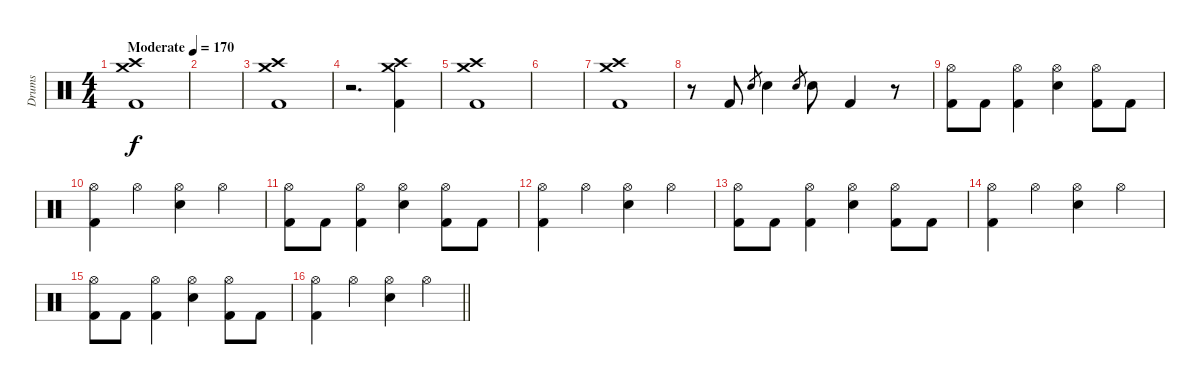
\track ("Drums" "Drums") {instrument percussion}
\staff {score}
\articulation defaults
\ts (4 4)
\tempo (170 "Moderate")
\clef neutral
\ks c
("Crash high (hit)" "Crash medium (hit)" "Kick (hit) 2").1{dy f} |
|
("Crash high (hit)" "Crash medium (hit)" "Kick (hit) 2").1 |
r.2{d} ("Crash high (hit)" "Crash medium (hit)" "Kick (hit) 2").4 |
("Crash high (hit)" "Crash medium (hit)" "Kick (hit) 2").1 |
|
("Crash high (hit)" "Crash medium (hit)" "Kick (hit) 2").1 |
r.8 "Kick (hit) 2".8 "Snare (hit) 2".8{gr} "Snare (hit) 2".4 "Snare (hit) 2".8{gr} "Snare (hit) 2".8 "Kick (hit) 2".4 r.8 |
("Hi-Hat (open)" "Kick (hit) 2").8 "Kick (hit) 2".8 ("Hi-Hat (open)" "Kick (hit) 2").4 ("Hi-Hat (open)" "Snare (hit) 2").4 ("Hi-Hat (open)" "Kick (hit) 2").8 "Kick (hit) 2".8 |
("Hi-Hat (open)" "Kick (hit) 2").4 "Hi-Hat (open)".4 ("Hi-Hat (open)" "Snare (hit) 2").4 "Hi-Hat (open)".4 |
("Hi-Hat (open)" "Kick (hit) 2").8 "Kick (hit) 2".8 ("Hi-Hat (open)" "Kick (hit) 2").4 ("Hi-Hat (open)" "Snare (hit) 2").4 ("Hi-Hat (open)" "Kick (hit) 2").8 "Kick (hit) 2".8 |
("Hi-Hat (open)" "Kick (hit) 2").4 "Hi-Hat (open)".4 ("Hi-Hat (open)" "Snare (hit) 2").4 "Hi-Hat (open)".4 |
("Hi-Hat (open)" "Kick (hit) 2").8 "Kick (hit) 2".8 ("Hi-Hat (open)" "Kick (hit) 2").4 ("Hi-Hat (open)" "Snare (hit) 2").4 ("Hi-Hat (open)" "Kick (hit) 2").8 "Kick (hit) 2".8 |
("Hi-Hat (open)" "Kick (hit) 2").4 "Hi-Hat (open)".4 ("Hi-Hat (open)" "Snare (hit) 2").4 "Hi-Hat (open)".4 |
("Hi-Hat (open)" "Kick (hit) 2").8 "Kick (hit) 2".8 ("Hi-Hat (open)" "Kick (hit) 2").4 ("Hi-Hat (open)" "Snare (hit) 2").4 ("Hi-Hat (open)" "Kick (hit) 2").8 "Kick (hit) 2".8 |
\barLineRight lightlight
("Hi-Hat (open)" "Kick (hit) 2").4 "Hi-Hat (open)".4 ("Hi-Hat (open)" "Snare (hit) 2").4 "Hi-Hat (open)".4
